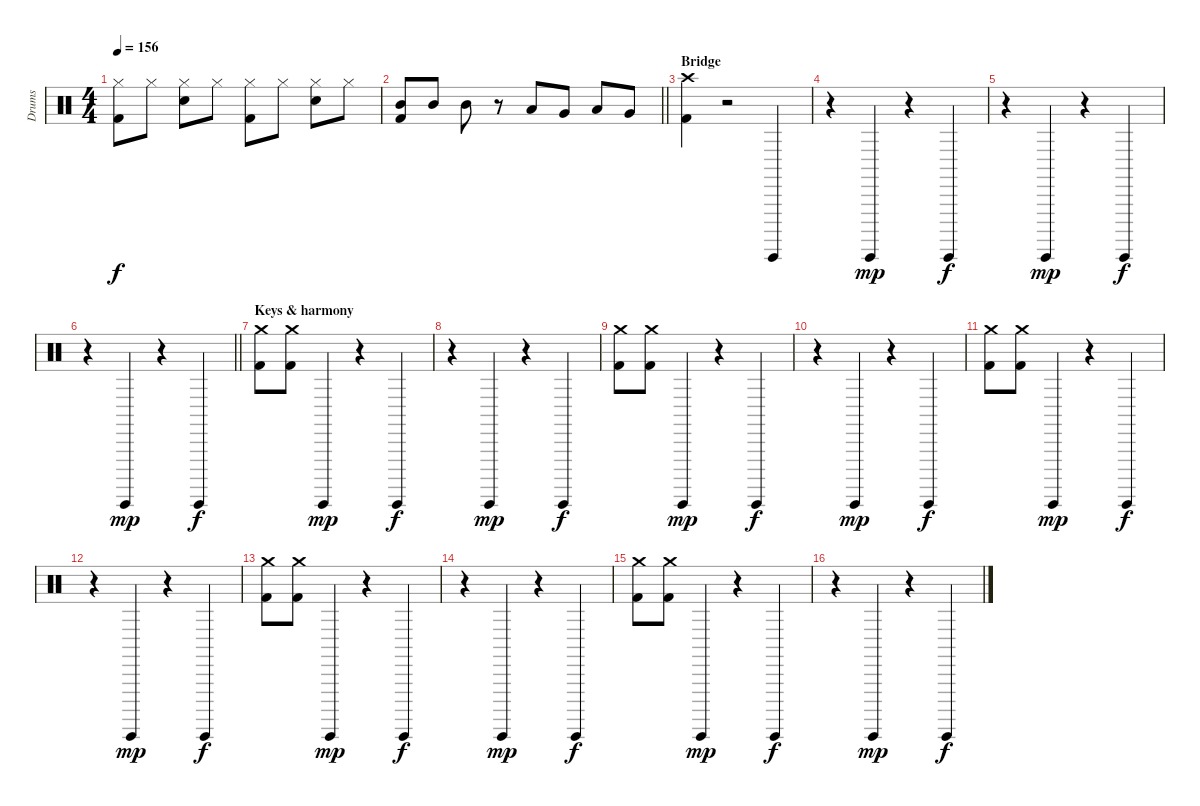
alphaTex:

\track ("Drums" "Drums") {instrument percussion}
\staff {score}
\articulation defaults
\ts (4 4)
\tempo 156
\clef neutral
\ks c
("Hi-Hat (closed)" "Kick (hit) 2").8{dy f} "Hi-Hat (closed)".8 ("Hi-Hat (closed)" "Electric Snare (hit)").8 "Hi-Hat (closed)".8 ("Hi-Hat (closed)" "Kick (hit) 2").8 "Hi-Hat (closed)".8 ("Hi-Hat (closed)" "Electric Snare (hit)").8 "Hi-Hat (closed)".8 |
\barLineRight lightlight
("Mid Tom (hit)" "Kick (hit) 2").8 "Mid Tom (hit)".8 "Mid Tom (hit)".8 r.8 "Low Tom (hit)".8 "Very Low Tom (hit)".8 "Low Tom (hit)".8 "Very Low Tom (hit)".8 |
\section ("" "Bridge")
("Crash high (hit)" "Kick (hit) 2").4 r.2 "Guiro (hit)".4 |
r.4 "Guiro (hit)".4{dy mp} r.4 "Guiro (hit)".4{dy f} |
r.4 "Guiro (hit)".4{dy mp} r.4 "Guiro (hit)".4{dy f} |
\barLineRight lightlight
r.4 "Guiro (hit)".4{dy mp} r.4 "Guiro (hit)".4{dy f} |
\section ("" "Keys & harmony")
("Crash medium (hit)" "Kick (hit) 2").8 ("Crash medium (hit)" "Kick (hit) 2").8 "Guiro (hit)".4{dy mp} r.4 "Guiro (hit)".4{dy f} |
r.4 "Guiro (hit)".4{dy mp} r.4 "Guiro (hit)".4{dy f} |
("Crash medium (hit)" "Kick (hit) 2").8 ("Crash medium (hit)" "Kick (hit) 2").8 "Guiro (hit)".4{dy mp} r.4 "Guiro (hit)".4{dy f} |
r.4 "Guiro (hit)".4{dy mp} r.4 "Guiro (hit)".4{dy f} |
("Crash medium (hit)" "Kick (hit) 2").8 ("Crash medium (hit)" "Kick (hit) 2").8 "Guiro (hit)".4{dy mp} r.4 "Guiro (hit)".4{dy f} |
r.4 "Guiro (hit)".4{dy mp} r.4 "Guiro (hit)".4{dy f} |
("Crash medium (hit)" "Kick (hit) 2").8 ("Crash medium (hit)" "Kick (hit) 2").8 "Guiro (hit)".4{dy mp} r.4 "Guiro (hit)".4{dy f} |
r.4 "Guiro (hit)".4{dy mp} r.4 "Guiro (hit)".4{dy f} |
("Crash medium (hit)" "Kick (hit) 2").8 ("Crash medium (hit)" "Kick (hit) 2").8 "Guiro (hit)".4{dy mp} r.4 "Guiro (hit)".4{dy f} |
r.4 "Guiro (hit)".4{dy mp} r.4 "Guiro (hit)".4{dy f}
